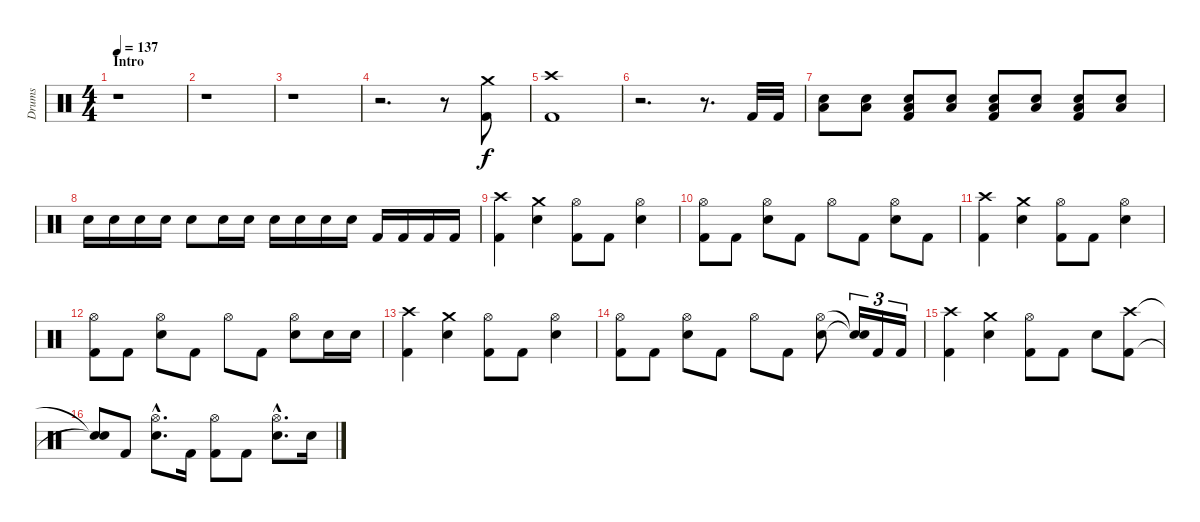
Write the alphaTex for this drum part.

\track ("Drums" "Drums") {instrument percussion}
\staff {score}
\articulation defaults
\ts (4 4)
\section ("" "Intro")
\tempo 137
\clef neutral
\ks c
r.1{dy f} |
r.1 |
r.1 |
r.2{d} r.8 ("Crash medium (hit)" "Kick (hit) 2").8 |
("Crash high (hit)" "Kick (hit) 2").1 |
r.2{d} r.8{d} "Kick (hit) 2".32 "Kick (hit) 2".32 |
("Low Floor Tom (hit)" "Snare (hit) 2").8 ("Low Floor Tom (hit)" "Snare (hit) 2").8 ("Low Floor Tom (hit)" "Snare (hit) 2" "Kick (hit) 2").8 ("Low Floor Tom (hit)" "Snare (hit) 2").8 ("Low Floor Tom (hit)" "Snare (hit) 2" "Kick (hit) 2").8 ("Low Floor Tom (hit)" "Snare (hit) 2").8 ("Low Floor Tom (hit)" "Snare (hit) 2" "Kick (hit) 2").8 ("Low Floor Tom (hit)" "Snare (hit) 2").8 |
"Snare (hit) 2".16 "Snare (hit) 2".16 "Snare (hit) 2".16 "Snare (hit) 2".16 "Snare (hit) 2".8 "Snare (hit) 2".16 "Snare (hit) 2".16 "Snare (hit) 2".16 "Snare (hit) 2".16 "Snare (hit) 2".16 "Snare (hit) 2".16 "Kick (hit) 2".16 "Kick (hit) 2".16 "Kick (hit) 2".16 "Kick (hit) 2".16 |
("Crash high (hit)" "Kick (hit) 2").4 ("Crash medium (hit)" "Snare (hit) 2").4 ("Hi-Hat (open)" "Kick (hit) 2").8 "Kick (hit) 2".8 ("Hi-Hat (open)" "Snare (hit) 2").4 |
("Hi-Hat (open)" "Kick (hit) 2").8 "Kick (hit) 2".8 ("Hi-Hat (open)" "Snare (hit) 2").8 "Kick (hit) 2".8 "Hi-Hat (open)".8 "Kick (hit) 2".8 ("Hi-Hat (open)" "Snare (hit) 2").8 "Kick (hit) 2".8 |
("Crash high (hit)" "Kick (hit) 2").4 ("Crash medium (hit)" "Snare (hit) 2").4 ("Hi-Hat (open)" "Kick (hit) 2").8 "Kick (hit) 2".8 ("Hi-Hat (open)" "Snare (hit) 2").4 |
("Hi-Hat (open)" "Kick (hit) 2").8 "Kick (hit) 2".8 ("Hi-Hat (open)" "Snare (hit) 2").8 "Kick (hit) 2".8 "Hi-Hat (open)".8 "Kick (hit) 2".8 ("Hi-Hat (open)" "Snare (hit) 2").8 "Snare (hit) 2".16 "Snare (hit) 2".16 |
("Crash high (hit)" "Kick (hit) 2").4 ("Crash medium (hit)" "Snare (hit) 2").4 ("Hi-Hat (open)" "Kick (hit) 2").8 "Kick (hit) 2".8 ("Hi-Hat (open)" "Snare (hit) 2").4 |
("Hi-Hat (open)" "Kick (hit) 2").8 "Kick (hit) 2".8 ("Hi-Hat (open)" "Snare (hit) 2").8 "Kick (hit) 2".8 "Hi-Hat (open)".8 "Kick (hit) 2".8 ("Hi-Hat (open)" "Snare (hit) 2").8 ("Snare (hit)"{t} "Snare (hit)"{t}).16{tu (3 2)} "Kick (hit) 2".16{tu (3 2)} "Kick (hit) 2".16{tu (3 2)} |
("Crash high (hit)" "Kick (hit) 2").4 ("Crash medium (hit)" "Snare (hit) 2").4 ("Hi-Hat (open)" "Kick (hit) 2").8 "Kick (hit) 2".8 "Snare (hit) 2".8 ("Crash high (hit)" "Kick (hit) 2").8 |
("Snare (hit)"{t} "Snare (hit)"{t}).8 "Kick (hit) 2".8 ("Hi-Hat (open)"{hac} "Snare (hit) 2"{hac}).8{d} "Kick (hit) 2".16 ("Hi-Hat (open)" "Kick (hit) 2").8 "Kick (hit) 2".8 ("Hi-Hat (open)"{hac} "Snare (hit) 2"{hac}).8{d} "Snare (hit) 2".16
